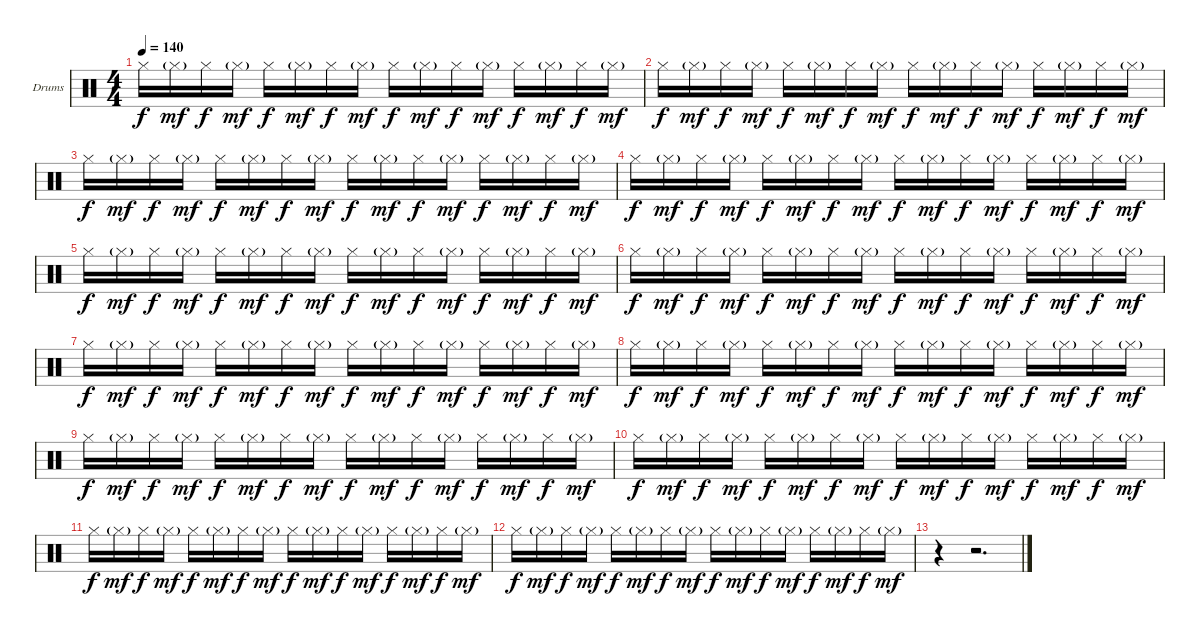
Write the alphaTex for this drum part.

\bracketExtendMode groupsimilarinstruments
\firstSystemTrackNameOrientation horizontal
\otherSystemsTrackNameOrientation horizontal
\track ("Drumkit" "Drums") {instrument percussion}
\staff {score}
\articulation defaults
\ts (4 4)
\tempo 140
\clef neutral
\ks c "Hi-Hat (closed)".16{dy f} "Hi-Hat (closed)"{g}.16{dy mf} "Hi-Hat (closed)".16{dy f} "Hi-Hat (closed)"{g}.16{dy mf} "Hi-Hat (closed)".16{dy f} "Hi-Hat (closed)"{g}.16{dy mf} "Hi-Hat (closed)".16{dy f} "Hi-Hat (closed)"{g}.16{dy mf} "Hi-Hat (closed)".16{dy f} "Hi-Hat (closed)"{g}.16{dy mf} "Hi-Hat (closed)".16{dy f} "Hi-Hat (closed)"{g}.16{dy mf} "Hi-Hat (closed)".16{dy f} "Hi-Hat (closed)"{g}.16{dy mf} "Hi-Hat (closed)".16{dy f} "Hi-Hat (closed)"{g}.16{dy mf}
|
"Hi-Hat (closed)".16{dy f} "Hi-Hat (closed)"{g}.16{dy mf} "Hi-Hat (closed)".16{dy f} "Hi-Hat (closed)"{g}.16{dy mf} "Hi-Hat (closed)".16{dy f} "Hi-Hat (closed)"{g}.16{dy mf} "Hi-Hat (closed)".16{dy f} "Hi-Hat (closed)"{g}.16{dy mf} "Hi-Hat (closed)".16{dy f} "Hi-Hat (closed)"{g}.16{dy mf} "Hi-Hat (closed)".16{dy f} "Hi-Hat (closed)"{g}.16{dy mf} "Hi-Hat (closed)".16{dy f} "Hi-Hat (closed)"{g}.16{dy mf} "Hi-Hat (closed)".16{dy f} "Hi-Hat (closed)"{g}.16{dy mf} |
"Hi-Hat (closed)".16{dy f} "Hi-Hat (closed)"{g}.16{dy mf} "Hi-Hat (closed)".16{dy f} "Hi-Hat (closed)"{g}.16{dy mf} "Hi-Hat (closed)".16{dy f} "Hi-Hat (closed)"{g}.16{dy mf} "Hi-Hat (closed)".16{dy f} "Hi-Hat (closed)"{g}.16{dy mf} "Hi-Hat (closed)".16{dy f} "Hi-Hat (closed)"{g}.16{dy mf} "Hi-Hat (closed)".16{dy f} "Hi-Hat (closed)"{g}.16{dy mf} "Hi-Hat (closed)".16{dy f} "Hi-Hat (closed)"{g}.16{dy mf} "Hi-Hat (closed)".16{dy f} "Hi-Hat (closed)"{g}.16{dy mf} |
"Hi-Hat (closed)".16{dy f} "Hi-Hat (closed)"{g}.16{dy mf} "Hi-Hat (closed)".16{dy f} "Hi-Hat (closed)"{g}.16{dy mf} "Hi-Hat (closed)".16{dy f} "Hi-Hat (closed)"{g}.16{dy mf} "Hi-Hat (closed)".16{dy f} "Hi-Hat (closed)"{g}.16{dy mf} "Hi-Hat (closed)".16{dy f} "Hi-Hat (closed)"{g}.16{dy mf} "Hi-Hat (closed)".16{dy f} "Hi-Hat (closed)"{g}.16{dy mf} "Hi-Hat (closed)".16{dy f} "Hi-Hat (closed)"{g}.16{dy mf} "Hi-Hat (closed)".16{dy f} "Hi-Hat (closed)"{g}.16{dy mf} |
"Hi-Hat (closed)".16{dy f} "Hi-Hat (closed)"{g}.16{dy mf} "Hi-Hat (closed)".16{dy f} "Hi-Hat (closed)"{g}.16{dy mf} "Hi-Hat (closed)".16{dy f} "Hi-Hat (closed)"{g}.16{dy mf} "Hi-Hat (closed)".16{dy f} "Hi-Hat (closed)"{g}.16{dy mf} "Hi-Hat (closed)".16{dy f} "Hi-Hat (closed)"{g}.16{dy mf} "Hi-Hat (closed)".16{dy f} "Hi-Hat (closed)"{g}.16{dy mf} "Hi-Hat (closed)".16{dy f} "Hi-Hat (closed)"{g}.16{dy mf} "Hi-Hat (closed)".16{dy f} "Hi-Hat (closed)"{g}.16{dy mf} |
"Hi-Hat (closed)".16{dy f} "Hi-Hat (closed)"{g}.16{dy mf} "Hi-Hat (closed)".16{dy f} "Hi-Hat (closed)"{g}.16{dy mf} "Hi-Hat (closed)".16{dy f} "Hi-Hat (closed)"{g}.16{dy mf} "Hi-Hat (closed)".16{dy f} "Hi-Hat (closed)"{g}.16{dy mf} "Hi-Hat (closed)".16{dy f} "Hi-Hat (closed)"{g}.16{dy mf} "Hi-Hat (closed)".16{dy f} "Hi-Hat (closed)"{g}.16{dy mf} "Hi-Hat (closed)".16{dy f} "Hi-Hat (closed)"{g}.16{dy mf} "Hi-Hat (closed)".16{dy f} "Hi-Hat (closed)"{g}.16{dy mf} |
"Hi-Hat (closed)".16{dy f} "Hi-Hat (closed)"{g}.16{dy mf} "Hi-Hat (closed)".16{dy f} "Hi-Hat (closed)"{g}.16{dy mf} "Hi-Hat (closed)".16{dy f} "Hi-Hat (closed)"{g}.16{dy mf} "Hi-Hat (closed)".16{dy f} "Hi-Hat (closed)"{g}.16{dy mf} "Hi-Hat (closed)".16{dy f} "Hi-Hat (closed)"{g}.16{dy mf} "Hi-Hat (closed)".16{dy f} "Hi-Hat (closed)"{g}.16{dy mf} "Hi-Hat (closed)".16{dy f} "Hi-Hat (closed)"{g}.16{dy mf} "Hi-Hat (closed)".16{dy f} "Hi-Hat (closed)"{g}.16{dy mf} |
"Hi-Hat (closed)".16{dy f} "Hi-Hat (closed)"{g}.16{dy mf} "Hi-Hat (closed)".16{dy f} "Hi-Hat (closed)"{g}.16{dy mf} "Hi-Hat (closed)".16{dy f} "Hi-Hat (closed)"{g}.16{dy mf} "Hi-Hat (closed)".16{dy f} "Hi-Hat (closed)"{g}.16{dy mf} "Hi-Hat (closed)".16{dy f} "Hi-Hat (closed)"{g}.16{dy mf} "Hi-Hat (closed)".16{dy f} "Hi-Hat (closed)"{g}.16{dy mf} "Hi-Hat (closed)".16{dy f} "Hi-Hat (closed)"{g}.16{dy mf} "Hi-Hat (closed)".16{dy f} "Hi-Hat (closed)"{g}.16{dy mf} |
"Hi-Hat (closed)".16{dy f} "Hi-Hat (closed)"{g}.16{dy mf} "Hi-Hat (closed)".16{dy f} "Hi-Hat (closed)"{g}.16{dy mf} "Hi-Hat (closed)".16{dy f} "Hi-Hat (closed)"{g}.16{dy mf} "Hi-Hat (closed)".16{dy f} "Hi-Hat (closed)"{g}.16{dy mf} "Hi-Hat (closed)".16{dy f} "Hi-Hat (closed)"{g}.16{dy mf} "Hi-Hat (closed)".16{dy f} "Hi-Hat (closed)"{g}.16{dy mf} "Hi-Hat (closed)".16{dy f} "Hi-Hat (closed)"{g}.16{dy mf} "Hi-Hat (closed)".16{dy f} "Hi-Hat (closed)"{g}.16{dy mf} |
"Hi-Hat (closed)".16{dy f} "Hi-Hat (closed)"{g}.16{dy mf} "Hi-Hat (closed)".16{dy f} "Hi-Hat (closed)"{g}.16{dy mf} "Hi-Hat (closed)".16{dy f} "Hi-Hat (closed)"{g}.16{dy mf} "Hi-Hat (closed)".16{dy f} "Hi-Hat (closed)"{g}.16{dy mf} "Hi-Hat (closed)".16{dy f} "Hi-Hat (closed)"{g}.16{dy mf} "Hi-Hat (closed)".16{dy f} "Hi-Hat (closed)"{g}.16{dy mf} "Hi-Hat (closed)".16{dy f} "Hi-Hat (closed)"{g}.16{dy mf} "Hi-Hat (closed)".16{dy f} "Hi-Hat (closed)"{g}.16{dy mf} |
"Hi-Hat (closed)".16{dy f} "Hi-Hat (closed)"{g}.16{dy mf} "Hi-Hat (closed)".16{dy f} "Hi-Hat (closed)"{g}.16{dy mf} "Hi-Hat (closed)".16{dy f} "Hi-Hat (closed)"{g}.16{dy mf} "Hi-Hat (closed)".16{dy f} "Hi-Hat (closed)"{g}.16{dy mf} "Hi-Hat (closed)".16{dy f} "Hi-Hat (closed)"{g}.16{dy mf} "Hi-Hat (closed)".16{dy f} "Hi-Hat (closed)"{g}.16{dy mf} "Hi-Hat (closed)".16{dy f} "Hi-Hat (closed)"{g}.16{dy mf} "Hi-Hat (closed)".16{dy f} "Hi-Hat (closed)"{g}.16{dy mf} |
"Hi-Hat (closed)".16{dy f} "Hi-Hat (closed)"{g}.16{dy mf} "Hi-Hat (closed)".16{dy f} "Hi-Hat (closed)"{g}.16{dy mf} "Hi-Hat (closed)".16{dy f} "Hi-Hat (closed)"{g}.16{dy mf} "Hi-Hat (closed)".16{dy f} "Hi-Hat (closed)"{g}.16{dy mf} "Hi-Hat (closed)".16{dy f} "Hi-Hat (closed)"{g}.16{dy mf} "Hi-Hat (closed)".16{dy f} "Hi-Hat (closed)"{g}.16{dy mf} "Hi-Hat (closed)".16{dy f} "Hi-Hat (closed)"{g}.16{dy mf} "Hi-Hat (closed)".16{dy f} "Hi-Hat (closed)"{g}.16{dy mf} |
r.4 r.2{d}
